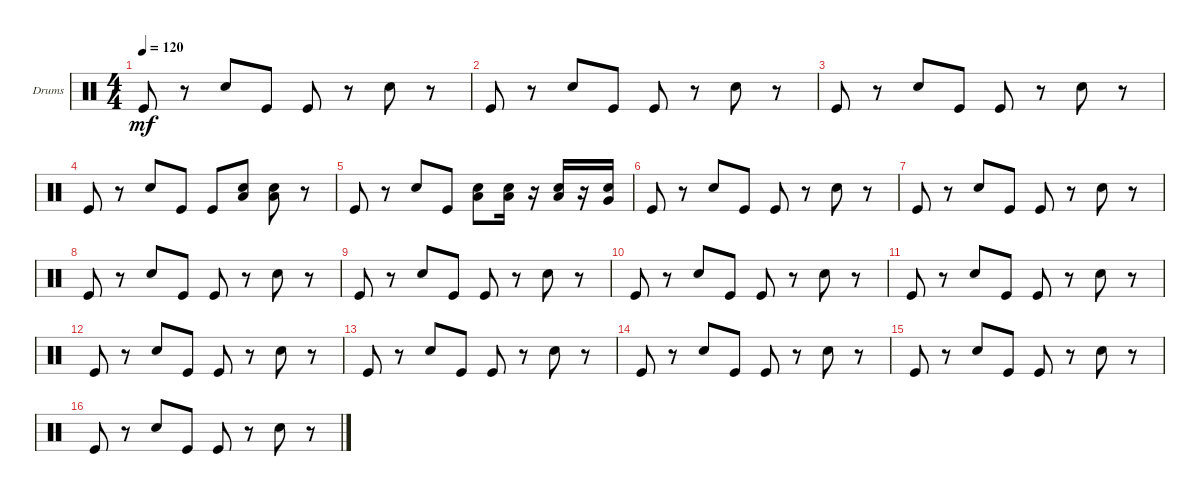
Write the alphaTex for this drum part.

\defaultSystemsLayout 4
\bracketExtendMode groupsimilarinstruments
\firstSystemTrackNameOrientation horizontal
\otherSystemsTrackNameOrientation horizontal
\track ("Drumkit" "Drums") {instrument percussion}
\staff {score}
\articulation defaults
\ts (4 4)
\tempo 120
\clef neutral
\ks c "Kick (hit)".8{dy mf}
r.8 "Snare (hit) 2".8 "Kick (hit)".8 "Kick (hit)".8 r.8 "Snare (hit) 2".8 r.8 |
"Kick (hit)".8 r.8 "Snare (hit) 2".8 "Kick (hit)".8 "Kick (hit)".8 r.8 "Snare (hit) 2".8 r.8 |
"Kick (hit)".8 r.8 "Snare (hit) 2".8 "Kick (hit)".8 "Kick (hit)".8 r.8 "Snare (hit) 2".8 r.8 |
"Kick (hit)".8 r.8 "Snare (hit) 2".8 "Kick (hit)".8 "Kick (hit)".8 ("Low Tom (hit)" "Snare (hit) 2").8 ("Snare (hit) 2" "Low Tom (hit)").8 r.8 |
"Kick (hit)".8 r.8 "Snare (hit) 2".8 "Kick (hit)".8 ("Snare (hit) 2" "Low Tom (hit)").8 ("Snare (hit) 2" "Low Tom (hit)").16 r.16 ("Low Tom (hit)" "Snare (hit) 2").16 r.16 ("Very Low Tom (hit)" "Snare (hit) 2").16 |
"Kick (hit)".8 r.8 "Snare (hit) 2".8 "Kick (hit)".8 "Kick (hit)".8 r.8 "Snare (hit) 2".8 r.8 |
"Kick (hit)".8 r.8 "Snare (hit) 2".8 "Kick (hit)".8 "Kick (hit)".8 r.8 "Snare (hit) 2".8 r.8 |
"Kick (hit)".8 r.8 "Snare (hit) 2".8 "Kick (hit)".8 "Kick (hit)".8 r.8 "Snare (hit) 2".8 r.8 |
"Kick (hit)".8 r.8 "Snare (hit) 2".8 "Kick (hit)".8 "Kick (hit)".8 r.8 "Snare (hit) 2".8 r.8 |
"Kick (hit)".8 r.8 "Snare (hit) 2".8 "Kick (hit)".8 "Kick (hit)".8 r.8 "Snare (hit) 2".8 r.8 |
"Kick (hit)".8 r.8 "Snare (hit) 2".8 "Kick (hit)".8 "Kick (hit)".8 r.8 "Snare (hit) 2".8 r.8 |
"Kick (hit)".8 r.8 "Snare (hit) 2".8 "Kick (hit)".8 "Kick (hit)".8 r.8 "Snare (hit) 2".8 r.8 |
"Kick (hit)".8 r.8 "Snare (hit) 2".8 "Kick (hit)".8 "Kick (hit)".8 r.8 "Snare (hit) 2".8 r.8 |
"Kick (hit)".8 r.8 "Snare (hit) 2".8 "Kick (hit)".8 "Kick (hit)".8 r.8 "Snare (hit) 2".8 r.8 |
"Kick (hit)".8 r.8 "Snare (hit) 2".8 "Kick (hit)".8 "Kick (hit)".8 r.8 "Snare (hit) 2".8 r.8 |
"Kick (hit)".8 r.8 "Snare (hit) 2".8 "Kick (hit)".8 "Kick (hit)".8 r.8 "Snare (hit) 2".8 r.8
